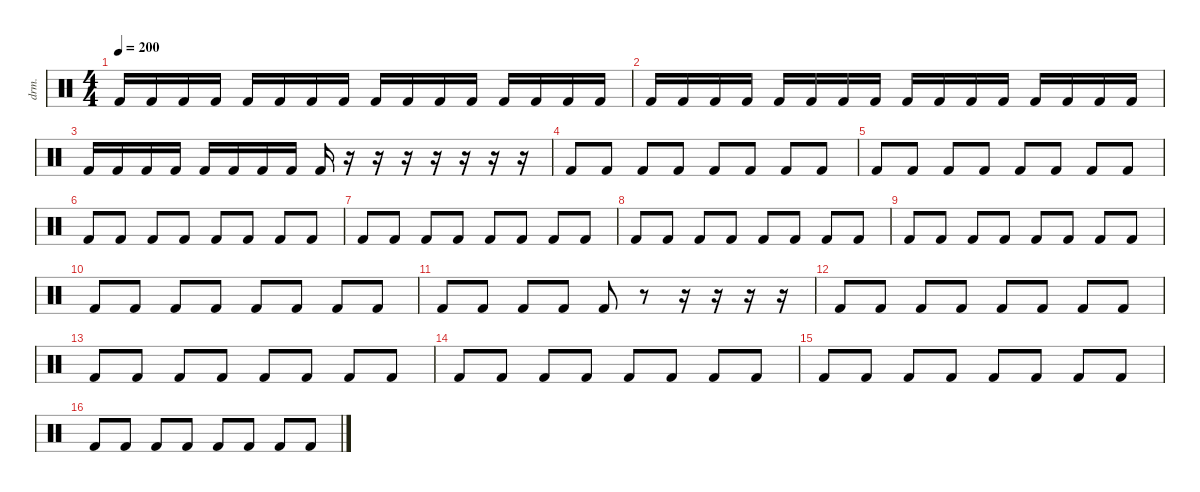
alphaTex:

\defaultSystemsLayout 4
\hideDynamics
\bracketExtendMode nobrackets
\track ("Percussion" "drm.") {instrument percussion}
\staff {score}
\articulation defaults
\ts (4 4)
\tempo 200
\clef neutral
\ks c "Kick (hit) 2".16{dy f} "Kick (hit) 2".16 "Kick (hit) 2".16 "Kick (hit) 2".16 "Kick (hit) 2".16 "Kick (hit) 2".16 "Kick (hit) 2".16 "Kick (hit) 2".16 "Kick (hit) 2".16 "Kick (hit) 2".16 "Kick (hit) 2".16 "Kick (hit) 2".16 "Kick (hit) 2".16 "Kick (hit) 2".16 "Kick (hit) 2".16 "Kick (hit) 2".16
|
"Kick (hit) 2".16 "Kick (hit) 2".16 "Kick (hit) 2".16 "Kick (hit) 2".16 "Kick (hit) 2".16 "Kick (hit) 2".16 "Kick (hit) 2".16 "Kick (hit) 2".16 "Kick (hit) 2".16 "Kick (hit) 2".16 "Kick (hit) 2".16 "Kick (hit) 2".16 "Kick (hit) 2".16 "Kick (hit) 2".16 "Kick (hit) 2".16 "Kick (hit) 2".16 |
"Kick (hit) 2".16 "Kick (hit) 2".16 "Kick (hit) 2".16 "Kick (hit) 2".16 "Kick (hit) 2".16 "Kick (hit) 2".16 "Kick (hit) 2".16 "Kick (hit) 2".16 "Kick (hit) 2".16 r.16 r.16 r.16 r.16 r.16 r.16 r.16 |
"Kick (hit) 2".8 "Kick (hit) 2".8 "Kick (hit) 2".8 "Kick (hit) 2".8 "Kick (hit) 2".8 "Kick (hit) 2".8 "Kick (hit) 2".8 "Kick (hit) 2".8 |
"Kick (hit) 2".8 "Kick (hit) 2".8 "Kick (hit) 2".8 "Kick (hit) 2".8 "Kick (hit) 2".8 "Kick (hit) 2".8 "Kick (hit) 2".8 "Kick (hit) 2".8 |
"Kick (hit) 2".8 "Kick (hit) 2".8 "Kick (hit) 2".8 "Kick (hit) 2".8 "Kick (hit) 2".8 "Kick (hit) 2".8 "Kick (hit) 2".8 "Kick (hit) 2".8 |
"Kick (hit) 2".8 "Kick (hit) 2".8 "Kick (hit) 2".8 "Kick (hit) 2".8 "Kick (hit) 2".8 "Kick (hit) 2".8 "Kick (hit) 2".8 "Kick (hit) 2".8 |
"Kick (hit) 2".8 "Kick (hit) 2".8 "Kick (hit) 2".8 "Kick (hit) 2".8 "Kick (hit) 2".8 "Kick (hit) 2".8 "Kick (hit) 2".8 "Kick (hit) 2".8 |
"Kick (hit) 2".8 "Kick (hit) 2".8 "Kick (hit) 2".8 "Kick (hit) 2".8 "Kick (hit) 2".8 "Kick (hit) 2".8 "Kick (hit) 2".8 "Kick (hit) 2".8 |
"Kick (hit) 2".8 "Kick (hit) 2".8 "Kick (hit) 2".8 "Kick (hit) 2".8 "Kick (hit) 2".8 "Kick (hit) 2".8 "Kick (hit) 2".8 "Kick (hit) 2".8 |
"Kick (hit) 2".8 "Kick (hit) 2".8 "Kick (hit) 2".8 "Kick (hit) 2".8 "Kick (hit) 2".8 r.8 r.16 r.16 r.16 r.16 |
"Kick (hit) 2".8 "Kick (hit) 2".8 "Kick (hit) 2".8 "Kick (hit) 2".8 "Kick (hit) 2".8 "Kick (hit) 2".8 "Kick (hit) 2".8 "Kick (hit) 2".8 |
"Kick (hit) 2".8 "Kick (hit) 2".8 "Kick (hit) 2".8 "Kick (hit) 2".8 "Kick (hit) 2".8 "Kick (hit) 2".8 "Kick (hit) 2".8 "Kick (hit) 2".8 |
"Kick (hit) 2".8 "Kick (hit) 2".8 "Kick (hit) 2".8 "Kick (hit) 2".8 "Kick (hit) 2".8 "Kick (hit) 2".8 "Kick (hit) 2".8 "Kick (hit) 2".8 |
"Kick (hit) 2".8 "Kick (hit) 2".8 "Kick (hit) 2".8 "Kick (hit) 2".8 "Kick (hit) 2".8 "Kick (hit) 2".8 "Kick (hit) 2".8 "Kick (hit) 2".8 |
"Kick (hit) 2".8 "Kick (hit) 2".8 "Kick (hit) 2".8 "Kick (hit) 2".8 "Kick (hit) 2".8 "Kick (hit) 2".8 "Kick (hit) 2".8 "Kick (hit) 2".8
